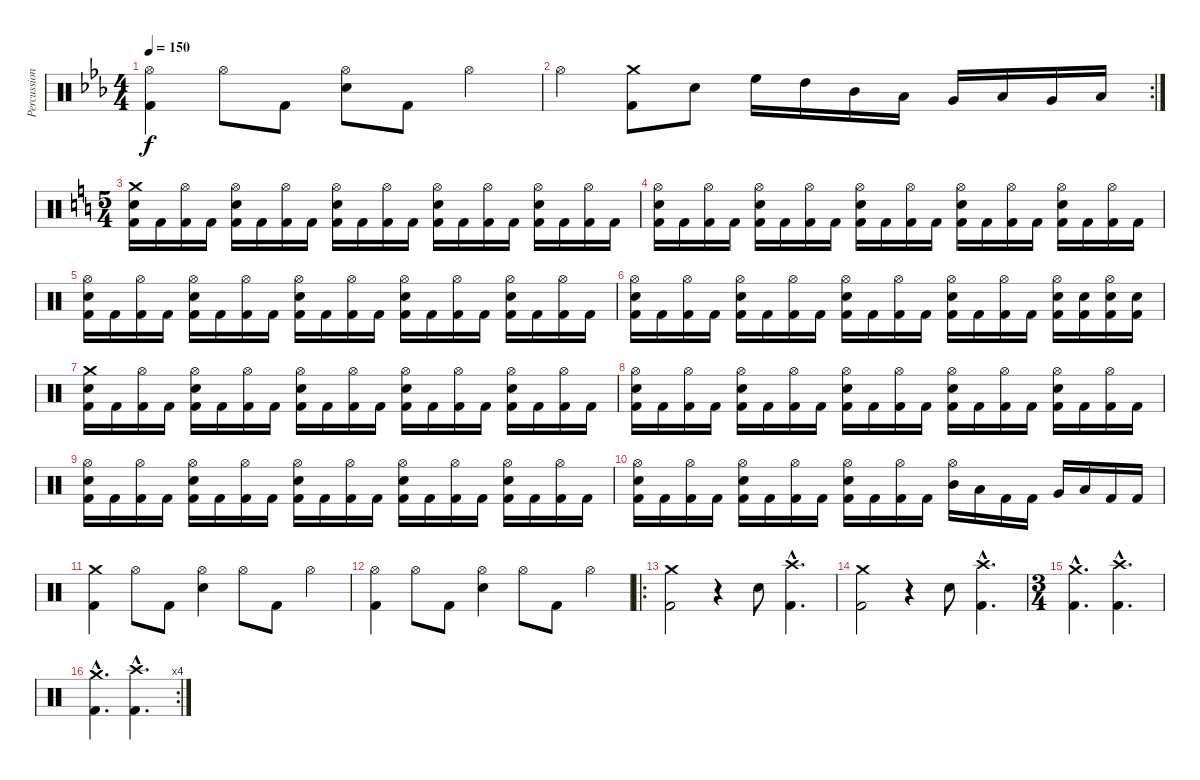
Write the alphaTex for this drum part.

\track ("Percussion" "Percussion") {instrument percussion}
\staff {score}
\articulation defaults
\ts (4 4)
\tempo 150
\clef neutral
\ks cminor
("Hi-Hat (open)" "Kick (hit) 2").4{dy f} "Hi-Hat (open)".8 "Kick (hit) 2".8 ("Hi-Hat (open)" "Electric Snare (hit)").8 "Kick (hit) 2".8 "Hi-Hat (open)".4 |
\rc 2 "Hi-Hat (open)".4
("Crash medium (hit)" "Kick (hit) 2").8 "Electric Snare (hit)".8 "High Floor Tom (hit)".16 "High Tom (hit)".16 "Mid Tom (hit)".16 "Low Tom (hit)".16 "Very Low Tom (hit)".16 "Low Floor Tom (hit)".16 "Very Low Tom (hit)".16 "Low Floor Tom (hit)".16 |
\ts (5 4)
\ks aminor
("Crash medium (hit)" "Electric Snare (hit)" "Kick (hit) 2").16 "Kick (hit) 2".16 ("Hi-Hat (open)" "Kick (hit) 2").16 "Kick (hit) 2".16 ("Hi-Hat (open)" "Electric Snare (hit)" "Kick (hit) 2").16 "Kick (hit) 2".16 ("Hi-Hat (open)" "Kick (hit) 2").16 "Kick (hit) 2".16 ("Hi-Hat (open)" "Electric Snare (hit)" "Kick (hit) 2").16 "Kick (hit) 2".16 ("Hi-Hat (open)" "Kick (hit) 2").16 "Kick (hit) 2".16 ("Hi-Hat (open)" "Electric Snare (hit)" "Kick (hit) 2").16 "Kick (hit) 2".16 ("Hi-Hat (open)" "Kick (hit) 2").16 "Kick (hit) 2".16 ("Hi-Hat (open)" "Electric Snare (hit)" "Kick (hit) 2").16 "Kick (hit) 2".16 ("Hi-Hat (open)" "Kick (hit) 2").16 "Kick (hit) 2".16 |
("Hi-Hat (open)" "Electric Snare (hit)" "Kick (hit) 2").16 "Kick (hit) 2".16 ("Hi-Hat (open)" "Kick (hit) 2").16 "Kick (hit) 2".16 ("Hi-Hat (open)" "Electric Snare (hit)" "Kick (hit) 2").16 "Kick (hit) 2".16 ("Hi-Hat (open)" "Kick (hit) 2").16 "Kick (hit) 2".16 ("Hi-Hat (open)" "Electric Snare (hit)" "Kick (hit) 2").16 "Kick (hit) 2".16 ("Hi-Hat (open)" "Kick (hit) 2").16 "Kick (hit) 2".16 ("Hi-Hat (open)" "Electric Snare (hit)" "Kick (hit) 2").16 "Kick (hit) 2".16 ("Hi-Hat (open)" "Kick (hit) 2").16 "Kick (hit) 2".16 ("Hi-Hat (open)" "Electric Snare (hit)" "Kick (hit) 2").16 "Kick (hit) 2".16 ("Hi-Hat (open)" "Kick (hit) 2").16 "Kick (hit) 2".16 |
("Hi-Hat (open)" "Electric Snare (hit)" "Kick (hit) 2").16 "Kick (hit) 2".16 ("Hi-Hat (open)" "Kick (hit) 2").16 "Kick (hit) 2".16 ("Hi-Hat (open)" "Electric Snare (hit)" "Kick (hit) 2").16 "Kick (hit) 2".16 ("Hi-Hat (open)" "Kick (hit) 2").16 "Kick (hit) 2".16 ("Hi-Hat (open)" "Electric Snare (hit)" "Kick (hit) 2").16 "Kick (hit) 2".16 ("Hi-Hat (open)" "Kick (hit) 2").16 "Kick (hit) 2".16 ("Hi-Hat (open)" "Electric Snare (hit)" "Kick (hit) 2").16 "Kick (hit) 2".16 ("Hi-Hat (open)" "Kick (hit) 2").16 "Kick (hit) 2".16 ("Hi-Hat (open)" "Electric Snare (hit)" "Kick (hit) 2").16 "Kick (hit) 2".16 ("Hi-Hat (open)" "Kick (hit) 2").16 "Kick (hit) 2".16 |
("Hi-Hat (open)" "Electric Snare (hit)" "Kick (hit) 2").16 "Kick (hit) 2".16 ("Hi-Hat (open)" "Kick (hit) 2").16 "Kick (hit) 2".16 ("Hi-Hat (open)" "Electric Snare (hit)" "Kick (hit) 2").16 "Kick (hit) 2".16 ("Hi-Hat (open)" "Kick (hit) 2").16 "Kick (hit) 2".16 ("Hi-Hat (open)" "Electric Snare (hit)" "Kick (hit) 2").16 "Kick (hit) 2".16 ("Hi-Hat (open)" "Kick (hit) 2").16 "Kick (hit) 2".16 ("Hi-Hat (open)" "Electric Snare (hit)" "Kick (hit) 2").16 "Kick (hit) 2".16 ("Hi-Hat (open)" "Kick (hit) 2").16 "Kick (hit) 2".16 ("Hi-Hat (open)" "Electric Snare (hit)" "Kick (hit) 2").16 ("Electric Snare (hit)" "Kick (hit) 2").16 ("Hi-Hat (open)" "Electric Snare (hit)" "Kick (hit) 2").16 ("Electric Snare (hit)" "Kick (hit) 2").16 |
("Crash medium (hit)" "Electric Snare (hit)" "Kick (hit) 2").16 "Kick (hit) 2".16 ("Hi-Hat (open)" "Kick (hit) 2").16 "Kick (hit) 2".16 ("Hi-Hat (open)" "Electric Snare (hit)" "Kick (hit) 2").16 "Kick (hit) 2".16 ("Hi-Hat (open)" "Kick (hit) 2").16 "Kick (hit) 2".16 ("Hi-Hat (open)" "Electric Snare (hit)" "Kick (hit) 2").16 "Kick (hit) 2".16 ("Hi-Hat (open)" "Kick (hit) 2").16 "Kick (hit) 2".16 ("Hi-Hat (open)" "Electric Snare (hit)" "Kick (hit) 2").16 "Kick (hit) 2".16 ("Hi-Hat (open)" "Kick (hit) 2").16 "Kick (hit) 2".16 ("Hi-Hat (open)" "Electric Snare (hit)" "Kick (hit) 2").16 "Kick (hit) 2".16 ("Hi-Hat (open)" "Kick (hit) 2").16 "Kick (hit) 2".16 |
("Hi-Hat (open)" "Electric Snare (hit)" "Kick (hit) 2").16 "Kick (hit) 2".16 ("Hi-Hat (open)" "Kick (hit) 2").16 "Kick (hit) 2".16 ("Hi-Hat (open)" "Electric Snare (hit)" "Kick (hit) 2").16 "Kick (hit) 2".16 ("Hi-Hat (open)" "Kick (hit) 2").16 "Kick (hit) 2".16 ("Hi-Hat (open)" "Electric Snare (hit)" "Kick (hit) 2").16 "Kick (hit) 2".16 ("Hi-Hat (open)" "Kick (hit) 2").16 "Kick (hit) 2".16 ("Hi-Hat (open)" "Electric Snare (hit)" "Kick (hit) 2").16 "Kick (hit) 2".16 ("Hi-Hat (open)" "Kick (hit) 2").16 "Kick (hit) 2".16 ("Hi-Hat (open)" "Electric Snare (hit)" "Kick (hit) 2").16 "Kick (hit) 2".16 ("Hi-Hat (open)" "Kick (hit) 2").16 "Kick (hit) 2".16 |
("Hi-Hat (open)" "Electric Snare (hit)" "Kick (hit) 2").16 "Kick (hit) 2".16 ("Hi-Hat (open)" "Kick (hit) 2").16 "Kick (hit) 2".16 ("Hi-Hat (open)" "Electric Snare (hit)" "Kick (hit) 2").16 "Kick (hit) 2".16 ("Hi-Hat (open)" "Kick (hit) 2").16 "Kick (hit) 2".16 ("Hi-Hat (open)" "Electric Snare (hit)" "Kick (hit) 2").16 "Kick (hit) 2".16 ("Hi-Hat (open)" "Kick (hit) 2").16 "Kick (hit) 2".16 ("Hi-Hat (open)" "Electric Snare (hit)" "Kick (hit) 2").16 "Kick (hit) 2".16 ("Hi-Hat (open)" "Kick (hit) 2").16 "Kick (hit) 2".16 ("Hi-Hat (open)" "Electric Snare (hit)" "Kick (hit) 2").16 "Kick (hit) 2".16 ("Hi-Hat (open)" "Kick (hit) 2").16 "Kick (hit) 2".16 |
("Hi-Hat (open)" "Electric Snare (hit)" "Kick (hit) 2").16 "Kick (hit) 2".16 ("Hi-Hat (open)" "Kick (hit) 2").16 "Kick (hit) 2".16 ("Hi-Hat (open)" "Electric Snare (hit)" "Kick (hit) 2").16 "Kick (hit) 2".16 ("Hi-Hat (open)" "Kick (hit) 2").16 "Kick (hit) 2".16 ("Hi-Hat (open)" "Electric Snare (hit)" "Kick (hit) 2").16 "Kick (hit) 2".16 ("Hi-Hat (open)" "Kick (hit) 2").16 "Kick (hit) 2".16 ("Hi-Hat (open)" "Mid Tom (hit)").16 "Low Tom (hit)".16 "Kick (hit) 2".16 "Kick (hit) 2".16 "Very Low Tom (hit)".16 "Low Floor Tom (hit)".16 "Kick (hit) 2".16 "Kick (hit) 2".16 |
("Crash medium (hit)" "Kick (hit) 2").4 "Hi-Hat (open)".8 "Kick (hit) 2".8 ("Hi-Hat (open)" "Electric Snare (hit)").4 "Hi-Hat (open)".8 "Kick (hit) 2".8 "Hi-Hat (open)".4 |
("Hi-Hat (open)" "Kick (hit) 2").4 "Hi-Hat (open)".8 "Kick (hit) 2".8 ("Hi-Hat (open)" "Electric Snare (hit)").4 "Hi-Hat (open)".8 "Kick (hit) 2".8 "Hi-Hat (open)".4 |
\ro
("Crash medium (hit)" "Kick (hit) 2").2 r.4 "Electric Snare (hit)".8 ("Crash high (hit)"{hac} "Kick (hit) 2"{hac}).4{d} |
("Crash medium (hit)" "Kick (hit) 2").2 r.4 "Electric Snare (hit)".8 ("Crash high (hit)"{hac} "Kick (hit) 2"{hac}).4{d} |
\ts (3 4)
("Crash medium (hit)"{hac} "Kick (hit) 2"{hac}).4{d} ("Crash high (hit)"{hac} "Kick (hit) 2"{hac}).4{d} |
\rc 4
("Crash medium (hit)"{hac} "Kick (hit) 2"{hac}).4{d} ("Crash high (hit)"{hac} "Kick (hit) 2"{hac}).4{d}
